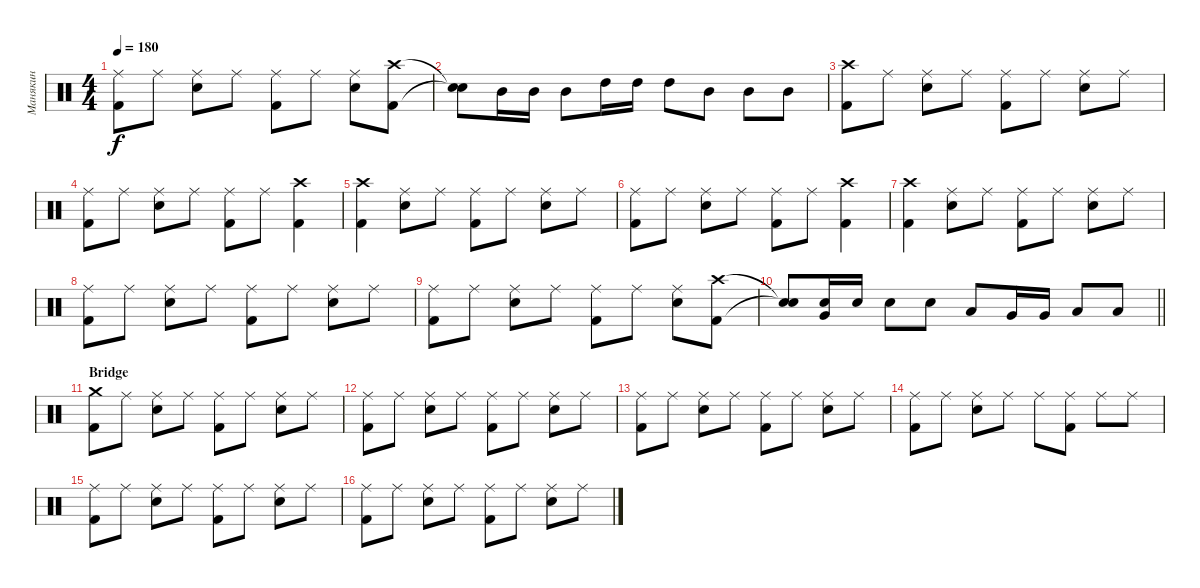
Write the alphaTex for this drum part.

\track ("Манякин" "Манякин") {instrument percussion}
\staff {score}
\articulation defaults
\ts (4 4)
\tempo 180
\clef neutral
\ks c
("Kick (hit) 2" "Ride (middle)").8{dy f} "Ride (middle)".8 ("Snare (hit) 2" "Ride (middle)").8 "Ride (middle)".8 ("Kick (hit) 2" "Ride (middle)").8 "Ride (middle)".8 ("Snare (hit) 2" "Ride (middle)").8 ("Kick (hit) 2" "Crash high (hit)").8 |
("Snare (hit)"{t} "Snare (hit)"{t}).8 "Mid Tom (hit)".16 "Mid Tom (hit)".16 "Mid Tom (hit)".8 "High Tom (hit)".16 "High Tom (hit)".16 "High Tom (hit)".8 "Mid Tom (hit)".8 "Mid Tom (hit)".8 "Mid Tom (hit)".8 |
("Kick (hit) 2" "Crash high (hit)").8 "Ride (middle)".8 ("Snare (hit) 2" "Ride (middle)").8 "Ride (middle)".8 ("Kick (hit) 2" "Ride (middle)").8 "Ride (middle)".8 ("Snare (hit) 2" "Ride (middle)").8 "Ride (middle)".8 |
("Kick (hit) 2" "Ride (middle)").8 "Ride (middle)".8 ("Snare (hit) 2" "Ride (middle)").8 "Ride (middle)".8 ("Kick (hit) 2" "Ride (middle)").8 "Ride (middle)".8 ("Kick (hit) 2" "Crash high (hit)").4 |
("Kick (hit) 2" "Crash high (hit)").4 ("Snare (hit) 2" "Ride (middle)").8 "Ride (middle)".8 ("Kick (hit) 2" "Ride (middle)").8 "Ride (middle)".8 ("Snare (hit) 2" "Ride (middle)").8 "Ride (middle)".8 |
("Kick (hit) 2" "Ride (middle)").8 "Ride (middle)".8 ("Snare (hit) 2" "Ride (middle)").8 "Ride (middle)".8 ("Kick (hit) 2" "Ride (middle)").8 "Ride (middle)".8 ("Kick (hit) 2" "Crash high (hit)").4 |
("Kick (hit) 2" "Crash high (hit)").4 ("Snare (hit) 2" "Ride (middle)").8 "Ride (middle)".8 ("Kick (hit) 2" "Ride (middle)").8 "Ride (middle)".8 ("Snare (hit) 2" "Ride (middle)").8 "Ride (middle)".8 |
("Kick (hit) 2" "Ride (middle)").8 "Ride (middle)".8 ("Snare (hit) 2" "Ride (middle)").8 "Ride (middle)".8 ("Kick (hit) 2" "Ride (middle)").8 "Ride (middle)".8 ("Snare (hit) 2" "Ride (middle)").8 "Ride (middle)".8 |
("Kick (hit) 2" "Ride (middle)").8 "Ride (middle)".8 ("Snare (hit) 2" "Ride (middle)").8 "Ride (middle)".8 ("Kick (hit) 2" "Ride (middle)").8 "Ride (middle)".8 ("Snare (hit) 2" "Ride (middle)").8 ("Kick (hit) 2" "Crash high (hit)").8 |
\barLineRight lightlight
("Snare (hit)"{t} "Snare (hit)"{t}).8 ("Very Low Tom (hit)" "Snare (hit) 2").16 "Snare (hit) 2".16 "Snare (hit) 2".8 "Snare (hit) 2".8 "Low Tom (hit)".8 "Very Low Tom (hit)".16 "Very Low Tom (hit)".16 "Low Floor Tom (hit)".8 "Low Floor Tom (hit)".8 |
\section ("" "Bridge")
("Kick (hit) 2" "Crash medium (hit)").8 "Ride (middle)".8 ("Snare (hit) 2" "Ride (middle)").8 "Ride (middle)".8 ("Kick (hit) 2" "Ride (middle)").8 "Ride (middle)".8 ("Snare (hit) 2" "Ride (middle)").8 "Ride (middle)".8 |
("Kick (hit) 2" "Ride (middle)").8 "Ride (middle)".8 ("Snare (hit) 2" "Ride (middle)").8 "Ride (middle)".8 ("Kick (hit) 2" "Ride (middle)").8 "Ride (middle)".8 ("Snare (hit) 2" "Ride (middle)").8 "Ride (middle)".8 |
("Kick (hit) 2" "Ride (middle)").8 "Ride (middle)".8 ("Snare (hit) 2" "Ride (middle)").8 "Ride (middle)".8 ("Kick (hit) 2" "Ride (middle)").8 "Ride (middle)".8 ("Snare (hit) 2" "Ride (middle)").8 "Ride (middle)".8 |
("Kick (hit) 2" "Ride (middle)").8 "Ride (middle)".8 ("Snare (hit) 2" "Ride (middle)").8 "Ride (middle)".8 "Ride (middle)".8 ("Kick (hit) 2" "Ride (middle)").8 "Ride (middle)".8 "Ride (middle)".8 |
("Kick (hit) 2" "Ride (middle)").8 "Ride (middle)".8 ("Snare (hit) 2" "Ride (middle)").8 "Ride (middle)".8 ("Kick (hit) 2" "Ride (middle)").8 "Ride (middle)".8 ("Snare (hit) 2" "Ride (middle)").8 "Ride (middle)".8 |
("Kick (hit) 2" "Ride (middle)").8 "Ride (middle)".8 ("Snare (hit) 2" "Ride (middle)").8 "Ride (middle)".8 ("Kick (hit) 2" "Ride (middle)").8 "Ride (middle)".8 ("Snare (hit) 2" "Ride (middle)").8 "Ride (middle)".8
